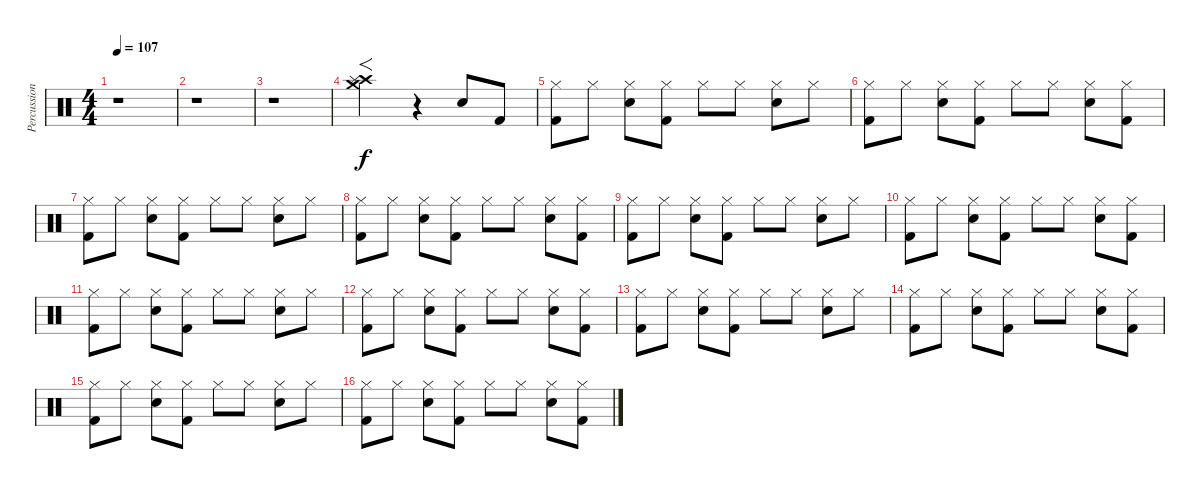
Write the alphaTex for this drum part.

\track ("Percussion" "Percussion") {instrument percussion}
\staff {score}
\articulation defaults
\ts (4 4)
\tempo 107
\clef neutral
\ks c
r.1{dy f} |
r.1 |
r.1 |
("Crash medium (hit)" "Crash high (hit)" "Splash (hit)").2{f} r.4 "Electric Snare (hit)".8 "Kick (hit) 2".8 |
("Hi-Hat (closed)" "Kick (hit) 2").8 "Hi-Hat (closed)".8 ("Hi-Hat (closed)" "Electric Snare (hit)").8 ("Hi-Hat (closed)" "Kick (hit) 2").8 "Hi-Hat (closed)".8 "Hi-Hat (closed)".8 ("Hi-Hat (closed)" "Electric Snare (hit)").8 "Hi-Hat (closed)".8 |
("Hi-Hat (closed)" "Kick (hit) 2").8 "Hi-Hat (closed)".8 ("Hi-Hat (closed)" "Electric Snare (hit)").8 ("Hi-Hat (closed)" "Kick (hit) 2").8 "Hi-Hat (closed)".8 "Hi-Hat (closed)".8 ("Hi-Hat (closed)" "Electric Snare (hit)").8 ("Hi-Hat (closed)" "Kick (hit) 2").8 |
("Hi-Hat (closed)" "Kick (hit) 2").8 "Hi-Hat (closed)".8 ("Hi-Hat (closed)" "Electric Snare (hit)").8 ("Hi-Hat (closed)" "Kick (hit) 2").8 "Hi-Hat (closed)".8 "Hi-Hat (closed)".8 ("Hi-Hat (closed)" "Electric Snare (hit)").8 "Hi-Hat (closed)".8 |
("Hi-Hat (closed)" "Kick (hit) 2").8 "Hi-Hat (closed)".8 ("Hi-Hat (closed)" "Electric Snare (hit)").8 ("Hi-Hat (closed)" "Kick (hit) 2").8 "Hi-Hat (closed)".8 "Hi-Hat (closed)".8 ("Hi-Hat (closed)" "Electric Snare (hit)").8 ("Hi-Hat (closed)" "Kick (hit) 2").8 |
("Hi-Hat (closed)" "Kick (hit) 2").8 "Hi-Hat (closed)".8 ("Hi-Hat (closed)" "Electric Snare (hit)").8 ("Hi-Hat (closed)" "Kick (hit) 2").8 "Hi-Hat (closed)".8 "Hi-Hat (closed)".8 ("Hi-Hat (closed)" "Electric Snare (hit)").8 "Hi-Hat (closed)".8 |
("Hi-Hat (closed)" "Kick (hit) 2").8 "Hi-Hat (closed)".8 ("Hi-Hat (closed)" "Electric Snare (hit)").8 ("Hi-Hat (closed)" "Kick (hit) 2").8 "Hi-Hat (closed)".8 "Hi-Hat (closed)".8 ("Hi-Hat (closed)" "Electric Snare (hit)").8 ("Hi-Hat (closed)" "Kick (hit) 2").8 |
("Hi-Hat (closed)" "Kick (hit) 2").8 "Hi-Hat (closed)".8 ("Hi-Hat (closed)" "Electric Snare (hit)").8 ("Hi-Hat (closed)" "Kick (hit) 2").8 "Hi-Hat (closed)".8 "Hi-Hat (closed)".8 ("Hi-Hat (closed)" "Electric Snare (hit)").8 "Hi-Hat (closed)".8 |
("Hi-Hat (closed)" "Kick (hit) 2").8 "Hi-Hat (closed)".8 ("Hi-Hat (closed)" "Electric Snare (hit)").8 ("Hi-Hat (closed)" "Kick (hit) 2").8 "Hi-Hat (closed)".8 "Hi-Hat (closed)".8 ("Hi-Hat (closed)" "Electric Snare (hit)").8 ("Hi-Hat (closed)" "Kick (hit) 2").8 |
("Hi-Hat (closed)" "Kick (hit) 2").8 "Hi-Hat (closed)".8 ("Hi-Hat (closed)" "Electric Snare (hit)").8 ("Hi-Hat (closed)" "Kick (hit) 2").8 "Hi-Hat (closed)".8 "Hi-Hat (closed)".8 ("Hi-Hat (closed)" "Electric Snare (hit)").8 "Hi-Hat (closed)".8 |
("Hi-Hat (closed)" "Kick (hit) 2").8 "Hi-Hat (closed)".8 ("Hi-Hat (closed)" "Electric Snare (hit)").8 ("Hi-Hat (closed)" "Kick (hit) 2").8 "Hi-Hat (closed)".8 "Hi-Hat (closed)".8 ("Hi-Hat (closed)" "Electric Snare (hit)").8 ("Hi-Hat (closed)" "Kick (hit) 2").8 |
("Hi-Hat (closed)" "Kick (hit) 2").8 "Hi-Hat (closed)".8 ("Hi-Hat (closed)" "Electric Snare (hit)").8 ("Hi-Hat (closed)" "Kick (hit) 2").8 "Hi-Hat (closed)".8 "Hi-Hat (closed)".8 ("Hi-Hat (closed)" "Electric Snare (hit)").8 "Hi-Hat (closed)".8 |
("Hi-Hat (closed)" "Kick (hit) 2").8 "Hi-Hat (closed)".8 ("Hi-Hat (closed)" "Electric Snare (hit)").8 ("Hi-Hat (closed)" "Kick (hit) 2").8 "Hi-Hat (closed)".8 "Hi-Hat (closed)".8 ("Hi-Hat (closed)" "Electric Snare (hit)").8 ("Hi-Hat (closed)" "Kick (hit) 2").8
